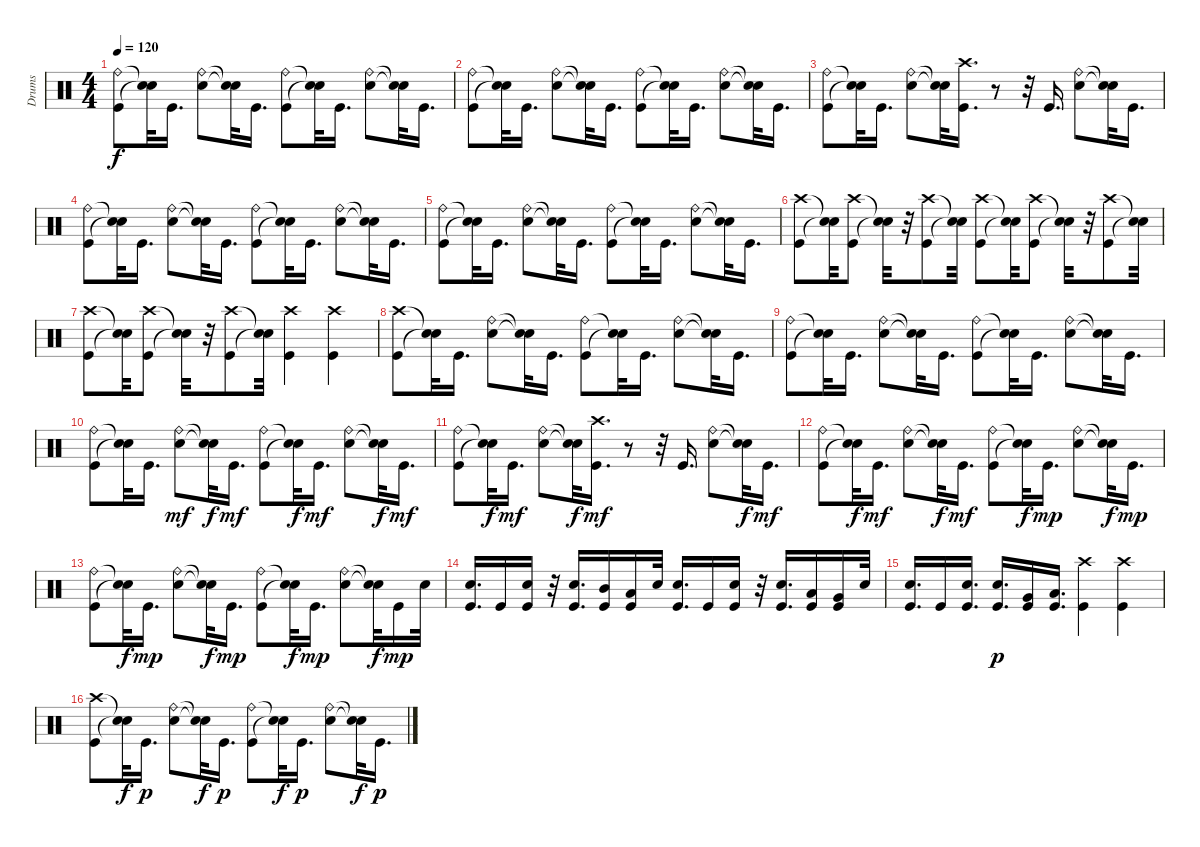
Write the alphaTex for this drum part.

\track ("Drums" "Drums") {instrument percussion}
\staff {score}
\articulation defaults
\ts (4 4)
\tempo 120
\clef neutral
\ks c
("Kick (hit)" "Ride (bell)").8{dy f} ("Snare (hit)"{t} "Snare (hit)"{t}).32 "Kick (hit)".16{d} ("Ride (bell)" "Snare (hit) 2").8 ("Snare (hit)"{t} "Snare (hit)"{t}).32 "Kick (hit)".16{d} ("Ride (bell)" "Kick (hit)").8 ("Snare (hit)"{t} "Snare (hit)"{t}).32 "Kick (hit)".16{d} ("Ride (bell)" "Snare (hit) 2").8 ("Snare (hit)"{t} "Snare (hit)"{t}).32 "Kick (hit)".16{d} |
("Ride (bell)" "Kick (hit)").8 ("Snare (hit)"{t} "Snare (hit)"{t}).32 "Kick (hit)".16{d} ("Snare (hit) 2" "Ride (bell)").8 ("Snare (hit)"{t} "Snare (hit)"{t}).32 "Kick (hit)".16{d} ("Ride (bell)" "Kick (hit)").8 ("Snare (hit)"{t} "Snare (hit)"{t}).32 "Kick (hit)".16{d} ("Ride (bell)" "Snare (hit) 2").8 ("Snare (hit)"{t} "Snare (hit)"{t}).32 "Kick (hit)".16{d} |
("Kick (hit)" "Ride (bell)").8 ("Snare (hit)"{t} "Snare (hit)"{t}).32 "Kick (hit)".16{d} ("Snare (hit) 2" "Ride (bell)").8 ("Snare (hit)"{t} "Snare (hit)"{t}).32 ("Crash high (hit)" "Kick (hit)").16{d} r.8 r.32 "Kick (hit)".16{d} ("Snare (hit) 2" "Ride (bell)").8 ("Snare (hit)"{t} "Snare (hit)"{t}).32 "Kick (hit)".16{d} |
("Ride (bell)" "Kick (hit)").8 ("Snare (hit)"{t} "Snare (hit)"{t}).32 "Kick (hit)".16{d} ("Snare (hit) 2" "Ride (bell)").8 ("Snare (hit)"{t} "Snare (hit)"{t}).32 "Kick (hit)".16{d} ("Kick (hit)" "Ride (bell)").8 ("Snare (hit)"{t} "Snare (hit)"{t}).32 "Kick (hit)".16{d} ("Ride (bell)" "Snare (hit) 2").8 ("Snare (hit)"{t} "Snare (hit)"{t}).32 "Kick (hit)".16{d} |
("Ride (bell)" "Kick (hit)").8 ("Snare (hit)"{t} "Snare (hit)"{t}).32 "Kick (hit)".16{d} ("Snare (hit) 2" "Ride (bell)").8 ("Snare (hit)"{t} "Snare (hit)"{t}).32 "Kick (hit)".16{d} ("Ride (bell)" "Kick (hit)").8 ("Snare (hit)"{t} "Snare (hit)"{t}).32 "Kick (hit)".16{d} ("Snare (hit) 2" "Ride (bell)").8 ("Snare (hit)"{t} "Snare (hit)"{t}).32 "Kick (hit)".16{d} |
("Kick (hit)" "Crash high (hit)").8 ("Snare (hit)"{t} "Snare (hit)"{t}).32 ("Kick (hit)" "Crash high (hit)").8 ("Snare (hit)"{t} "Snare (hit)"{t}).32 r.32 ("Kick (hit)" "Crash high (hit)").8 ("Snare (hit)"{t} "Snare (hit)"{t}).32 ("Kick (hit)" "Crash high (hit)").8 ("Snare (hit)"{t} "Snare (hit)"{t}).32 ("Kick (hit)" "Crash high (hit)").8 ("Snare (hit)"{t} "Snare (hit)"{t}).32 r.32 ("Kick (hit)" "Crash high (hit)").8 ("Snare (hit)"{t} "Snare (hit)"{t}).32 |
("Kick (hit)" "Crash high (hit)").8 ("Snare (hit)"{t} "Snare (hit)"{t}).32 ("Kick (hit)" "Crash high (hit)").8 ("Snare (hit)"{t} "Snare (hit)"{t}).32 r.32 ("Kick (hit)" "Crash high (hit)").8 ("Snare (hit)"{t} "Snare (hit)"{t}).32 ("Kick (hit)" "Crash high (hit)").4 ("Kick (hit)" "Crash high (hit)").4 |
("Kick (hit)" "Crash high (hit)").8 ("Snare (hit)"{t} "Snare (hit)"{t}).32 "Kick (hit)".16{d} ("Snare (hit) 2" "Ride (bell)").8 ("Snare (hit)"{t} "Snare (hit)"{t}).32 "Kick (hit)".16{d} ("Ride (bell)" "Kick (hit)").8 ("Snare (hit)"{t} "Snare (hit)"{t}).32 "Kick (hit)".16{d} ("Snare (hit) 2" "Ride (bell)").8 ("Snare (hit)"{t} "Snare (hit)"{t}).32 "Kick (hit)".16{d} |
("Kick (hit)" "Ride (bell)").8 ("Snare (hit)"{t} "Snare (hit)"{t}).32 "Kick (hit)".16{d} ("Ride (bell)" "Snare (hit) 2").8 ("Snare (hit)"{t} "Snare (hit)"{t}).32 "Kick (hit)".16{d} ("Ride (bell)" "Kick (hit)").8 ("Snare (hit)"{t} "Snare (hit)"{t}).32 "Kick (hit)".16{d} ("Ride (bell)" "Snare (hit) 2").8 ("Snare (hit)"{t} "Snare (hit)"{t}).32 "Kick (hit)".16{d} |
("Ride (bell)" "Kick (hit)").8 ("Snare (hit)"{t} "Snare (hit)"{t}).32 "Kick (hit)".16{d} ("Snare (hit) 2" "Ride (bell)").8{dy mf} ("Snare (hit)"{t} "Snare (hit)"{t}).32{dy f} "Kick (hit)".16{d dy mf} ("Ride (bell)" "Kick (hit)").8 ("Snare (hit)"{t} "Snare (hit)"{t}).32{dy f} "Kick (hit)".16{d dy mf} ("Ride (bell)" "Snare (hit) 2").8 ("Snare (hit)"{t} "Snare (hit)"{t}).32{dy f} "Kick (hit)".16{d dy mf} |
("Kick (hit)" "Ride (bell)").8 ("Snare (hit)"{t} "Snare (hit)"{t}).32{dy f} "Kick (hit)".16{d dy mf} ("Snare (hit) 2" "Ride (bell)").8 ("Snare (hit)"{t} "Snare (hit)"{t}).32{dy f} ("Crash high (hit)" "Kick (hit)").16{d dy mf} r.8 r.32 "Kick (hit)".16{d} ("Snare (hit) 2" "Ride (bell)").8 ("Snare (hit)"{t} "Snare (hit)"{t}).32{dy f} "Kick (hit)".16{d dy mf} |
("Ride (bell)" "Kick (hit)").8 ("Snare (hit)"{t} "Snare (hit)"{t}).32{dy f} "Kick (hit)".16{d dy mf} ("Snare (hit) 2" "Ride (bell)").8 ("Snare (hit)"{t} "Snare (hit)"{t}).32{dy f} "Kick (hit)".16{d dy mf} ("Kick (hit)" "Ride (bell)").8 ("Snare (hit)"{t} "Snare (hit)"{t}).32{dy f} "Kick (hit)".16{d dy mp} ("Ride (bell)" "Snare (hit) 2").8 ("Snare (hit)"{t} "Snare (hit)"{t}).32{dy f} "Kick (hit)".16{d dy mp} |
("Ride (bell)" "Kick (hit)").8 ("Snare (hit)"{t} "Snare (hit)"{t}).32{dy f} "Kick (hit)".16{d dy mp} ("Snare (hit) 2" "Ride (bell)").8 ("Snare (hit)"{t} "Snare (hit)"{t}).32{dy f} "Kick (hit)".16{d dy mp} ("Ride (bell)" "Kick (hit)").8 ("Snare (hit)"{t} "Snare (hit)"{t}).32{dy f} "Kick (hit)".16{d dy mp} ("Snare (hit) 2" "Ride (bell)").8 ("Snare (hit)"{t} "Snare (hit)"{t}).32{dy f} "Kick (hit)".16{dy mp} "Snare (hit) 2".32 |
("Kick (hit)" "Snare (hit) 2").16{d} "Kick (hit)".16 ("Snare (hit) 2" "Kick (hit)").16 r.32 ("Snare (hit) 2" "Kick (hit)").16{d} ("Mid Tom (hit)" "Kick (hit)").16 ("Kick (hit)" "Low Tom (hit)").16 "Snare (hit) 2".32 ("Kick (hit)" "Snare (hit) 2").16{d} "Kick (hit)".16 ("Kick (hit)" "Snare (hit) 2").16 r.32 ("Kick (hit)" "Snare (hit) 2").16{d} ("Kick (hit)" "Low Tom (hit)").16 ("Kick (hit)" "Very Low Tom (hit)").16 "Snare (hit) 2".32 |
("Snare (hit) 2" "Kick (hit)").16{d} "Kick (hit)".16 ("Snare (hit) 2" "Kick (hit)").16{d} ("Snare (hit) 2" "Kick (hit)").16{d dy p} ("Kick (hit)" "Very Low Tom (hit)").16 ("Low Floor Tom (hit)" "Kick (hit)").16{d} ("Kick (hit)" "Crash high (hit)").4 ("Kick (hit)" "Crash high (hit)").4 |
("Kick (hit)" "Crash high (hit)").8 ("Snare (hit)"{t} "Snare (hit)"{t}).32{dy f} "Kick (hit)".16{d dy p} ("Snare (hit) 2" "Ride (bell)").8 ("Snare (hit)"{t} "Snare (hit)"{t}).32{dy f} "Kick (hit)".16{d dy p} ("Ride (bell)" "Kick (hit)").8 ("Snare (hit)"{t} "Snare (hit)"{t}).32{dy f} "Kick (hit)".16{d dy p} ("Snare (hit) 2" "Ride (bell)").8 ("Snare (hit)"{t} "Snare (hit)"{t}).32{dy f} "Kick (hit)".16{d dy p}
